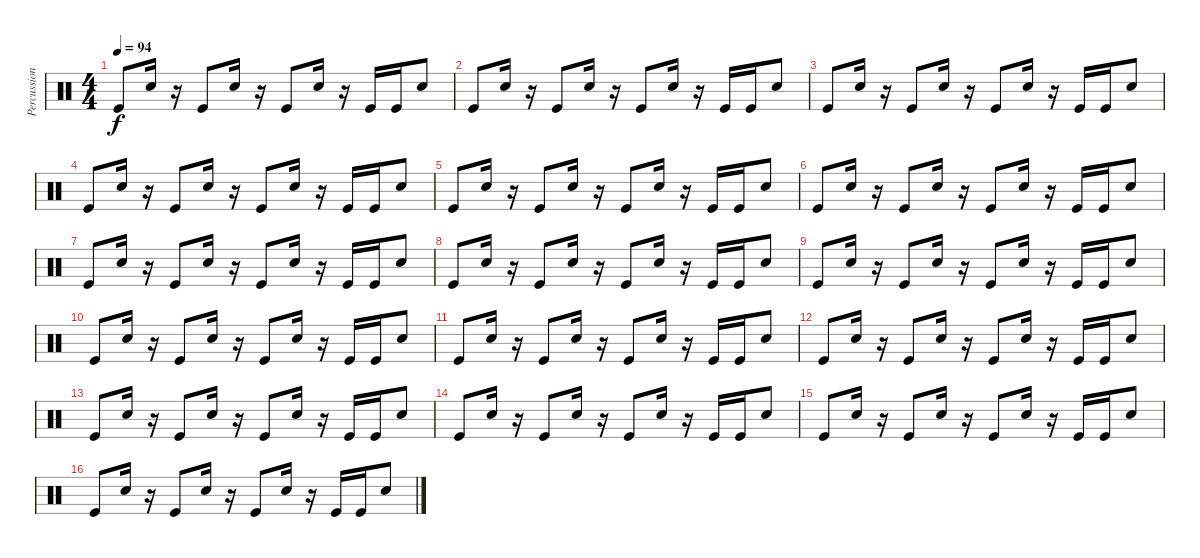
\track ("Percussion" "Percussion") {instrument percussion}
\staff {score}
\articulation defaults
\ts (4 4)
\tempo 94
\clef neutral
\ks c "Kick (hit)".8{dy f} "Electric Snare (hit)".16
r.16 "Kick (hit)".8 "Electric Snare (hit)".16 r.16 "Kick (hit)".8 "Electric Snare (hit)".16 r.16 "Kick (hit)".16 "Kick (hit)".16 "Electric Snare (hit)".8 |
"Kick (hit)".8 "Electric Snare (hit)".16 r.16 "Kick (hit)".8 "Electric Snare (hit)".16 r.16 "Kick (hit)".8 "Electric Snare (hit)".16 r.16 "Kick (hit)".16 "Kick (hit)".16 "Electric Snare (hit)".8 |
"Kick (hit)".8 "Electric Snare (hit)".16 r.16 "Kick (hit)".8 "Electric Snare (hit)".16 r.16 "Kick (hit)".8 "Electric Snare (hit)".16 r.16 "Kick (hit)".16 "Kick (hit)".16 "Electric Snare (hit)".8 |
"Kick (hit)".8 "Electric Snare (hit)".16 r.16 "Kick (hit)".8 "Electric Snare (hit)".16 r.16 "Kick (hit)".8 "Electric Snare (hit)".16 r.16 "Kick (hit)".16 "Kick (hit)".16 "Electric Snare (hit)".8 |
"Kick (hit)".8 "Electric Snare (hit)".16 r.16 "Kick (hit)".8 "Electric Snare (hit)".16 r.16 "Kick (hit)".8 "Electric Snare (hit)".16 r.16 "Kick (hit)".16 "Kick (hit)".16 "Electric Snare (hit)".8 |
"Kick (hit)".8 "Electric Snare (hit)".16 r.16 "Kick (hit)".8 "Electric Snare (hit)".16 r.16 "Kick (hit)".8 "Electric Snare (hit)".16 r.16 "Kick (hit)".16 "Kick (hit)".16 "Electric Snare (hit)".8 |
"Kick (hit)".8 "Electric Snare (hit)".16 r.16 "Kick (hit)".8 "Electric Snare (hit)".16 r.16 "Kick (hit)".8 "Electric Snare (hit)".16 r.16 "Kick (hit)".16 "Kick (hit)".16 "Electric Snare (hit)".8 |
"Kick (hit)".8 "Electric Snare (hit)".16 r.16 "Kick (hit)".8 "Electric Snare (hit)".16 r.16 "Kick (hit)".8 "Electric Snare (hit)".16 r.16 "Kick (hit)".16 "Kick (hit)".16 "Electric Snare (hit)".8 |
"Kick (hit)".8 "Electric Snare (hit)".16 r.16 "Kick (hit)".8 "Electric Snare (hit)".16 r.16 "Kick (hit)".8 "Electric Snare (hit)".16 r.16 "Kick (hit)".16 "Kick (hit)".16 "Electric Snare (hit)".8 |
"Kick (hit)".8 "Electric Snare (hit)".16 r.16 "Kick (hit)".8 "Electric Snare (hit)".16 r.16 "Kick (hit)".8 "Electric Snare (hit)".16 r.16 "Kick (hit)".16 "Kick (hit)".16 "Electric Snare (hit)".8 |
"Kick (hit)".8 "Electric Snare (hit)".16 r.16 "Kick (hit)".8 "Electric Snare (hit)".16 r.16 "Kick (hit)".8 "Electric Snare (hit)".16 r.16 "Kick (hit)".16 "Kick (hit)".16 "Electric Snare (hit)".8 |
"Kick (hit)".8 "Electric Snare (hit)".16 r.16 "Kick (hit)".8 "Electric Snare (hit)".16 r.16 "Kick (hit)".8 "Electric Snare (hit)".16 r.16 "Kick (hit)".16 "Kick (hit)".16 "Electric Snare (hit)".8 |
"Kick (hit)".8 "Electric Snare (hit)".16 r.16 "Kick (hit)".8 "Electric Snare (hit)".16 r.16 "Kick (hit)".8 "Electric Snare (hit)".16 r.16 "Kick (hit)".16 "Kick (hit)".16 "Electric Snare (hit)".8 |
"Kick (hit)".8 "Electric Snare (hit)".16 r.16 "Kick (hit)".8 "Electric Snare (hit)".16 r.16 "Kick (hit)".8 "Electric Snare (hit)".16 r.16 "Kick (hit)".16 "Kick (hit)".16 "Electric Snare (hit)".8 |
"Kick (hit)".8 "Electric Snare (hit)".16 r.16 "Kick (hit)".8 "Electric Snare (hit)".16 r.16 "Kick (hit)".8 "Electric Snare (hit)".16 r.16 "Kick (hit)".16 "Kick (hit)".16 "Electric Snare (hit)".8 |
"Kick (hit)".8 "Electric Snare (hit)".16 r.16 "Kick (hit)".8 "Electric Snare (hit)".16 r.16 "Kick (hit)".8 "Electric Snare (hit)".16 r.16 "Kick (hit)".16 "Kick (hit)".16 "Electric Snare (hit)".8
